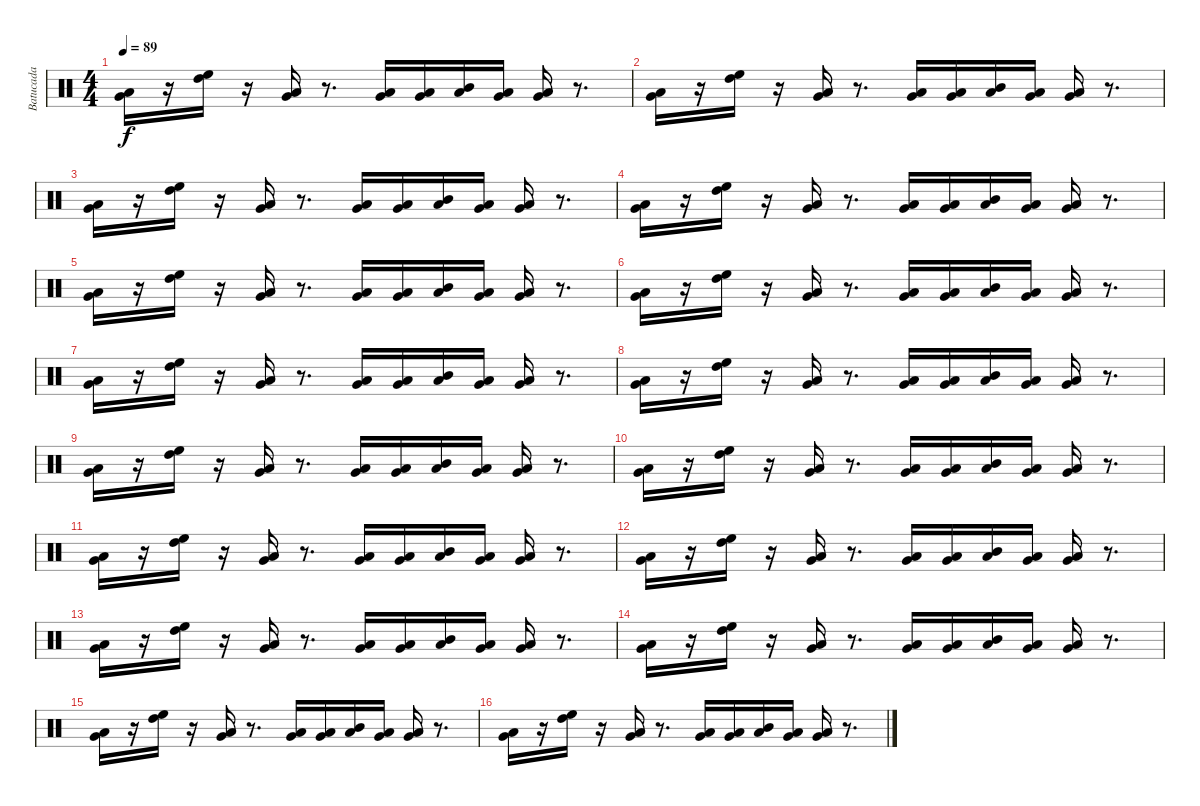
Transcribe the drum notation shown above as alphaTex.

\track ("Batucada" "Batucada") {instrument percussion}
\staff {score}
\articulation defaults
\ts (4 4)
\tempo 89
\clef neutral
\ks c
("Very Low Tom (hit)" "Low Floor Tom (hit)").16{dy f} r.16 ("High Floor Tom (hit)" "High Tom (hit)").16 r.16 ("Very Low Tom (hit)" "Low Floor Tom (hit)").16 r.8{d} ("Very Low Tom (hit)" "Low Floor Tom (hit)").16 ("Very Low Tom (hit)" "Low Floor Tom (hit)").16 ("Mid Tom (hit)" "Low Floor Tom (hit)").16 ("Very Low Tom (hit)" "Low Floor Tom (hit)").16 ("Very Low Tom (hit)" "Low Floor Tom (hit)").16 r.8{d} |
("Very Low Tom (hit)" "Low Floor Tom (hit)").16 r.16 ("High Floor Tom (hit)" "High Tom (hit)").16 r.16 ("Very Low Tom (hit)" "Low Floor Tom (hit)").16 r.8{d} ("Very Low Tom (hit)" "Low Floor Tom (hit)").16 ("Very Low Tom (hit)" "Low Floor Tom (hit)").16 ("Mid Tom (hit)" "Low Floor Tom (hit)").16 ("Very Low Tom (hit)" "Low Floor Tom (hit)").16 ("Very Low Tom (hit)" "Low Floor Tom (hit)").16 r.8{d} |
("Very Low Tom (hit)" "Low Floor Tom (hit)").16 r.16 ("High Floor Tom (hit)" "High Tom (hit)").16 r.16 ("Very Low Tom (hit)" "Low Floor Tom (hit)").16 r.8{d} ("Very Low Tom (hit)" "Low Floor Tom (hit)").16 ("Very Low Tom (hit)" "Low Floor Tom (hit)").16 ("Mid Tom (hit)" "Low Floor Tom (hit)").16 ("Very Low Tom (hit)" "Low Floor Tom (hit)").16 ("Very Low Tom (hit)" "Low Floor Tom (hit)").16 r.8{d} |
("Very Low Tom (hit)" "Low Floor Tom (hit)").16 r.16 ("High Floor Tom (hit)" "High Tom (hit)").16 r.16 ("Very Low Tom (hit)" "Low Floor Tom (hit)").16 r.8{d} ("Very Low Tom (hit)" "Low Floor Tom (hit)").16 ("Very Low Tom (hit)" "Low Floor Tom (hit)").16 ("Mid Tom (hit)" "Low Floor Tom (hit)").16 ("Very Low Tom (hit)" "Low Floor Tom (hit)").16 ("Very Low Tom (hit)" "Low Floor Tom (hit)").16 r.8{d} |
("Very Low Tom (hit)" "Low Floor Tom (hit)").16 r.16 ("High Floor Tom (hit)" "High Tom (hit)").16 r.16 ("Very Low Tom (hit)" "Low Floor Tom (hit)").16 r.8{d} ("Very Low Tom (hit)" "Low Floor Tom (hit)").16 ("Very Low Tom (hit)" "Low Floor Tom (hit)").16 ("Mid Tom (hit)" "Low Floor Tom (hit)").16 ("Very Low Tom (hit)" "Low Floor Tom (hit)").16 ("Very Low Tom (hit)" "Low Floor Tom (hit)").16 r.8{d} |
("Very Low Tom (hit)" "Low Floor Tom (hit)").16 r.16 ("High Floor Tom (hit)" "High Tom (hit)").16 r.16 ("Very Low Tom (hit)" "Low Floor Tom (hit)").16 r.8{d} ("Very Low Tom (hit)" "Low Floor Tom (hit)").16 ("Very Low Tom (hit)" "Low Floor Tom (hit)").16 ("Mid Tom (hit)" "Low Floor Tom (hit)").16 ("Very Low Tom (hit)" "Low Floor Tom (hit)").16 ("Very Low Tom (hit)" "Low Floor Tom (hit)").16 r.8{d} |
("Very Low Tom (hit)" "Low Floor Tom (hit)").16 r.16 ("High Floor Tom (hit)" "High Tom (hit)").16 r.16 ("Very Low Tom (hit)" "Low Floor Tom (hit)").16 r.8{d} ("Very Low Tom (hit)" "Low Floor Tom (hit)").16 ("Very Low Tom (hit)" "Low Floor Tom (hit)").16 ("Mid Tom (hit)" "Low Floor Tom (hit)").16 ("Very Low Tom (hit)" "Low Floor Tom (hit)").16 ("Very Low Tom (hit)" "Low Floor Tom (hit)").16 r.8{d} |
("Very Low Tom (hit)" "Low Floor Tom (hit)").16 r.16 ("High Floor Tom (hit)" "High Tom (hit)").16 r.16 ("Very Low Tom (hit)" "Low Floor Tom (hit)").16 r.8{d} ("Very Low Tom (hit)" "Low Floor Tom (hit)").16 ("Very Low Tom (hit)" "Low Floor Tom (hit)").16 ("Mid Tom (hit)" "Low Floor Tom (hit)").16 ("Very Low Tom (hit)" "Low Floor Tom (hit)").16 ("Very Low Tom (hit)" "Low Floor Tom (hit)").16 r.8{d} |
("Very Low Tom (hit)" "Low Floor Tom (hit)").16 r.16 ("High Floor Tom (hit)" "High Tom (hit)").16 r.16 ("Very Low Tom (hit)" "Low Floor Tom (hit)").16 r.8{d} ("Very Low Tom (hit)" "Low Floor Tom (hit)").16 ("Very Low Tom (hit)" "Low Floor Tom (hit)").16 ("Mid Tom (hit)" "Low Floor Tom (hit)").16 ("Very Low Tom (hit)" "Low Floor Tom (hit)").16 ("Very Low Tom (hit)" "Low Floor Tom (hit)").16 r.8{d} |
("Very Low Tom (hit)" "Low Floor Tom (hit)").16 r.16 ("High Floor Tom (hit)" "High Tom (hit)").16 r.16 ("Very Low Tom (hit)" "Low Floor Tom (hit)").16 r.8{d} ("Very Low Tom (hit)" "Low Floor Tom (hit)").16 ("Very Low Tom (hit)" "Low Floor Tom (hit)").16 ("Mid Tom (hit)" "Low Floor Tom (hit)").16 ("Very Low Tom (hit)" "Low Floor Tom (hit)").16 ("Very Low Tom (hit)" "Low Floor Tom (hit)").16 r.8{d} |
("Very Low Tom (hit)" "Low Floor Tom (hit)").16 r.16 ("High Floor Tom (hit)" "High Tom (hit)").16 r.16 ("Very Low Tom (hit)" "Low Floor Tom (hit)").16 r.8{d} ("Very Low Tom (hit)" "Low Floor Tom (hit)").16 ("Very Low Tom (hit)" "Low Floor Tom (hit)").16 ("Mid Tom (hit)" "Low Floor Tom (hit)").16 ("Very Low Tom (hit)" "Low Floor Tom (hit)").16 ("Very Low Tom (hit)" "Low Floor Tom (hit)").16 r.8{d} |
("Very Low Tom (hit)" "Low Floor Tom (hit)").16 r.16 ("High Floor Tom (hit)" "High Tom (hit)").16 r.16 ("Very Low Tom (hit)" "Low Floor Tom (hit)").16 r.8{d} ("Very Low Tom (hit)" "Low Floor Tom (hit)").16 ("Very Low Tom (hit)" "Low Floor Tom (hit)").16 ("Mid Tom (hit)" "Low Floor Tom (hit)").16 ("Very Low Tom (hit)" "Low Floor Tom (hit)").16 ("Very Low Tom (hit)" "Low Floor Tom (hit)").16 r.8{d} |
("Very Low Tom (hit)" "Low Floor Tom (hit)").16 r.16 ("High Floor Tom (hit)" "High Tom (hit)").16 r.16 ("Very Low Tom (hit)" "Low Floor Tom (hit)").16 r.8{d} ("Very Low Tom (hit)" "Low Floor Tom (hit)").16 ("Very Low Tom (hit)" "Low Floor Tom (hit)").16 ("Mid Tom (hit)" "Low Floor Tom (hit)").16 ("Very Low Tom (hit)" "Low Floor Tom (hit)").16 ("Very Low Tom (hit)" "Low Floor Tom (hit)").16 r.8{d} |
("Very Low Tom (hit)" "Low Floor Tom (hit)").16 r.16 ("High Floor Tom (hit)" "High Tom (hit)").16 r.16 ("Very Low Tom (hit)" "Low Floor Tom (hit)").16 r.8{d} ("Very Low Tom (hit)" "Low Floor Tom (hit)").16 ("Very Low Tom (hit)" "Low Floor Tom (hit)").16 ("Mid Tom (hit)" "Low Floor Tom (hit)").16 ("Very Low Tom (hit)" "Low Floor Tom (hit)").16 ("Very Low Tom (hit)" "Low Floor Tom (hit)").16 r.8{d} |
("Very Low Tom (hit)" "Low Floor Tom (hit)").16 r.16 ("High Floor Tom (hit)" "High Tom (hit)").16 r.16 ("Very Low Tom (hit)" "Low Floor Tom (hit)").16 r.8{d} ("Very Low Tom (hit)" "Low Floor Tom (hit)").16 ("Very Low Tom (hit)" "Low Floor Tom (hit)").16 ("Mid Tom (hit)" "Low Floor Tom (hit)").16 ("Very Low Tom (hit)" "Low Floor Tom (hit)").16 ("Very Low Tom (hit)" "Low Floor Tom (hit)").16 r.8{d} |
("Very Low Tom (hit)" "Low Floor Tom (hit)").16 r.16 ("High Floor Tom (hit)" "High Tom (hit)").16 r.16 ("Very Low Tom (hit)" "Low Floor Tom (hit)").16 r.8{d} ("Very Low Tom (hit)" "Low Floor Tom (hit)").16 ("Very Low Tom (hit)" "Low Floor Tom (hit)").16 ("Mid Tom (hit)" "Low Floor Tom (hit)").16 ("Very Low Tom (hit)" "Low Floor Tom (hit)").16 ("Very Low Tom (hit)" "Low Floor Tom (hit)").16 r.8{d}
